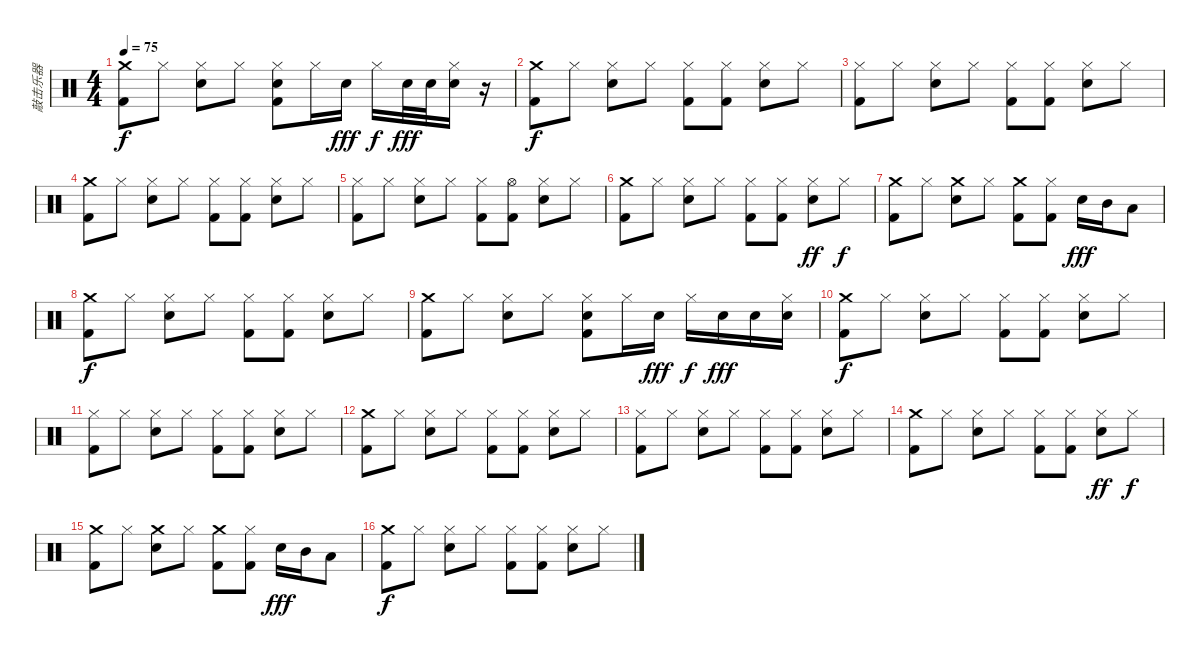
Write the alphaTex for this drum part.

\track ("敲击乐器" "敲击乐器") {instrument percussion}
\staff {score}
\articulation defaults
\ts (4 4)
\tempo 75
\clef neutral
\ks c
("Crash medium (hit)" "Kick (hit) 2").8{dy f} "Hi-Hat (closed)".8 ("Hi-Hat (closed)" "Electric Snare (hit)").8 "Hi-Hat (closed)".8 ("Hi-Hat (closed)" "Electric Snare (hit)" "Kick (hit) 2").8 "Hi-Hat (closed)".16 "Electric Snare (hit)".16{dy fff} "Hi-Hat (closed)".16{dy f} "Electric Snare (hit)".32{dy fff} "Electric Snare (hit)".32 ("Hi-Hat (closed)" "Electric Snare (hit)").16 r.16 |
("Crash medium (hit)" "Kick (hit) 2").8{dy f} "Hi-Hat (closed)".8 ("Hi-Hat (closed)" "Electric Snare (hit)").8 "Hi-Hat (closed)".8 ("Hi-Hat (closed)" "Kick (hit) 2").8 ("Hi-Hat (closed)" "Kick (hit) 2").8 ("Hi-Hat (closed)" "Electric Snare (hit)").8 "Hi-Hat (closed)".8 |
("Hi-Hat (closed)" "Kick (hit) 2").8 "Hi-Hat (closed)".8 ("Hi-Hat (closed)" "Electric Snare (hit)").8 "Hi-Hat (closed)".8 ("Hi-Hat (closed)" "Kick (hit) 2").8 ("Hi-Hat (closed)" "Kick (hit) 2").8 ("Hi-Hat (closed)" "Electric Snare (hit)").8 "Hi-Hat (closed)".8 |
("Crash medium (hit)" "Kick (hit) 2").8 "Hi-Hat (closed)".8 ("Hi-Hat (closed)" "Electric Snare (hit)").8 "Hi-Hat (closed)".8 ("Hi-Hat (closed)" "Kick (hit) 2").8 ("Hi-Hat (closed)" "Kick (hit) 2").8 ("Hi-Hat (closed)" "Electric Snare (hit)").8 "Hi-Hat (closed)".8 |
("Hi-Hat (closed)" "Kick (hit) 2").8 "Hi-Hat (closed)".8 ("Hi-Hat (closed)" "Electric Snare (hit)").8 "Hi-Hat (closed)".8 ("Hi-Hat (closed)" "Kick (hit) 2").8 ("Hi-Hat (open)" "Kick (hit) 2").8 ("Hi-Hat (closed)" "Electric Snare (hit)").8 "Hi-Hat (closed)".8 |
("Crash medium (hit)" "Kick (hit) 2").8 "Hi-Hat (closed)".8 ("Hi-Hat (closed)" "Electric Snare (hit)").8 "Hi-Hat (closed)".8 ("Hi-Hat (closed)" "Kick (hit) 2").8 ("Hi-Hat (closed)" "Kick (hit) 2").8 ("Hi-Hat (closed)" "Electric Snare (hit)").8{dy ff} "Hi-Hat (closed)".8{dy f} |
("Crash medium (hit)" "Kick (hit) 2").8 "Hi-Hat (closed)".8 ("Crash medium (hit)" "Electric Snare (hit)").8 "Hi-Hat (closed)".8 ("Crash medium (hit)" "Kick (hit) 2").8 ("Hi-Hat (closed)" "Kick (hit) 2").8 "Electric Snare (hit)".16{dy fff} "Mid Tom (hit)".16 "Low Tom (hit)".8 |
("Crash medium (hit)" "Kick (hit) 2").8{dy f} "Hi-Hat (closed)".8 ("Hi-Hat (closed)" "Electric Snare (hit)").8 "Hi-Hat (closed)".8 ("Hi-Hat (closed)" "Kick (hit) 2").8 ("Hi-Hat (closed)" "Kick (hit) 2").8 ("Hi-Hat (closed)" "Electric Snare (hit)").8 "Hi-Hat (closed)".8 |
("Crash medium (hit)" "Kick (hit) 2").8 "Hi-Hat (closed)".8 ("Hi-Hat (closed)" "Electric Snare (hit)").8 "Hi-Hat (closed)".8 ("Hi-Hat (closed)" "Electric Snare (hit)" "Kick (hit) 2").8 "Hi-Hat (closed)".16 "Electric Snare (hit)".16{dy fff} "Hi-Hat (closed)".16{dy f} "Electric Snare (hit)".16{dy fff} "Electric Snare (hit)".16 ("Hi-Hat (closed)" "Electric Snare (hit)").16 |
("Crash medium (hit)" "Kick (hit) 2").8{dy f} "Hi-Hat (closed)".8 ("Hi-Hat (closed)" "Electric Snare (hit)").8 "Hi-Hat (closed)".8 ("Hi-Hat (closed)" "Kick (hit) 2").8 ("Hi-Hat (closed)" "Kick (hit) 2").8 ("Hi-Hat (closed)" "Electric Snare (hit)").8 "Hi-Hat (closed)".8 |
("Hi-Hat (closed)" "Kick (hit) 2").8 "Hi-Hat (closed)".8 ("Hi-Hat (closed)" "Electric Snare (hit)").8 "Hi-Hat (closed)".8 ("Hi-Hat (closed)" "Kick (hit) 2").8 ("Hi-Hat (closed)" "Kick (hit) 2").8 ("Hi-Hat (closed)" "Electric Snare (hit)").8 "Hi-Hat (closed)".8 |
("Crash medium (hit)" "Kick (hit) 2").8{volume 15} "Hi-Hat (closed)".8 ("Hi-Hat (closed)" "Electric Snare (hit)").8{volume 14} "Hi-Hat (closed)".8 ("Hi-Hat (closed)" "Kick (hit) 2").8{volume 13} ("Hi-Hat (closed)" "Kick (hit) 2").8 ("Hi-Hat (closed)" "Electric Snare (hit)").8{volume 12} "Hi-Hat (closed)".8 |
("Hi-Hat (closed)" "Kick (hit) 2").8{volume 11} "Hi-Hat (closed)".8 ("Hi-Hat (closed)" "Electric Snare (hit)").8{volume 10} "Hi-Hat (closed)".8 ("Hi-Hat (closed)" "Kick (hit) 2").8{volume 9} ("Hi-Hat (closed)" "Kick (hit) 2").8 ("Hi-Hat (closed)" "Electric Snare (hit)").8{volume 8} "Hi-Hat (closed)".8 |
("Crash medium (hit)" "Kick (hit) 2").8{volume 7} "Hi-Hat (closed)".8 ("Hi-Hat (closed)" "Electric Snare (hit)").8{volume 6} "Hi-Hat (closed)".8 ("Hi-Hat (closed)" "Kick (hit) 2").8{volume 5} ("Hi-Hat (closed)" "Kick (hit) 2").8 ("Hi-Hat (closed)" "Electric Snare (hit)").8{dy ff volume 4} "Hi-Hat (closed)".8{dy f} |
("Crash medium (hit)" "Kick (hit) 2").8{volume 3} "Hi-Hat (closed)".8 ("Crash medium (hit)" "Electric Snare (hit)").8{volume 2} "Hi-Hat (closed)".8 ("Crash medium (hit)" "Kick (hit) 2").8{volume 1} ("Hi-Hat (closed)" "Kick (hit) 2").8 "Electric Snare (hit)".16{dy fff volume 0} "Mid Tom (hit)".16 "Low Tom (hit)".8 |
("Crash medium (hit)" "Kick (hit) 2").8{dy f} "Hi-Hat (closed)".8 ("Hi-Hat (closed)" "Electric Snare (hit)").8 "Hi-Hat (closed)".8 ("Hi-Hat (closed)" "Kick (hit) 2").8 ("Hi-Hat (closed)" "Kick (hit) 2").8 ("Hi-Hat (closed)" "Electric Snare (hit)").8 "Hi-Hat (closed)".8
